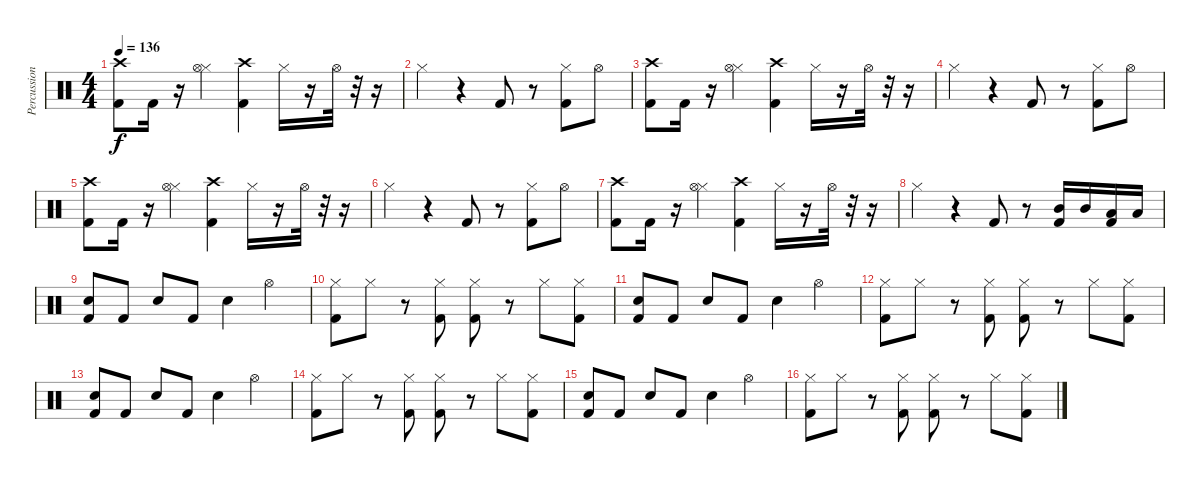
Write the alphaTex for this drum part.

\track ("Percussion" "Percussion") {instrument percussion}
\staff {score}
\articulation defaults
\ts (4 4)
\tempo 136
\clef neutral
\ks c
("Kick (hit) 2" "Crash high (hit)").8{dy f} "Kick (hit) 2".16 r.16 ("Hi-Hat (closed)" "Hi-Hat (open)").4 ("Kick (hit) 2" "Crash high (hit)").4 "Hi-Hat (closed)".16 r.16 "Hi-Hat (open)".32 r.32 r.16 |
"Hi-Hat (closed)".4 r.4 "Kick (hit) 2".8 r.8 ("Hi-Hat (closed)" "Kick (hit) 2").8 "Hi-Hat (open)".8 |
("Kick (hit) 2" "Crash high (hit)").8 "Kick (hit) 2".16 r.16 ("Hi-Hat (closed)" "Hi-Hat (open)").4 ("Kick (hit) 2" "Crash high (hit)").4 "Hi-Hat (closed)".16 r.16 "Hi-Hat (open)".32 r.32 r.16 |
"Hi-Hat (closed)".4 r.4 "Kick (hit) 2".8 r.8 ("Hi-Hat (closed)" "Kick (hit) 2").8 "Hi-Hat (open)".8 |
("Kick (hit) 2" "Crash high (hit)").8 "Kick (hit) 2".16 r.16 ("Hi-Hat (closed)" "Hi-Hat (open)").4 ("Kick (hit) 2" "Crash high (hit)").4 "Hi-Hat (closed)".16 r.16 "Hi-Hat (open)".32 r.32 r.16 |
"Hi-Hat (closed)".4 r.4 "Kick (hit) 2".8 r.8 ("Hi-Hat (closed)" "Kick (hit) 2").8 "Hi-Hat (open)".8 |
("Kick (hit) 2" "Crash high (hit)").8 "Kick (hit) 2".16 r.16 ("Hi-Hat (closed)" "Hi-Hat (open)").4 ("Kick (hit) 2" "Crash high (hit)").4 "Hi-Hat (closed)".16 r.16 "Hi-Hat (open)".32 r.32 r.16 |
"Hi-Hat (closed)".4 r.4 "Kick (hit) 2".8 r.8 ("Mid Tom (hit)" "Kick (hit) 2").16 "Mid Tom (hit)".16 ("Low Tom (hit)" "Kick (hit) 2").16 "Low Tom (hit)".16 |
("Kick (hit) 2" "Electric Snare (hit)").8 "Kick (hit) 2".8 "Electric Snare (hit)".8 "Kick (hit) 2".8 "Electric Snare (hit)".4 "Hi-Hat (open)".4 |
("Hi-Hat (closed)" "Kick (hit) 2").8 "Hi-Hat (closed)".8 r.8 ("Hi-Hat (closed)" "Kick (hit) 2").8 ("Hi-Hat (closed)" "Kick (hit) 2").8 r.8 "Hi-Hat (closed)".8 ("Hi-Hat (closed)" "Kick (hit) 2").8 |
("Kick (hit) 2" "Electric Snare (hit)").8 "Kick (hit) 2".8 "Electric Snare (hit)".8 "Kick (hit) 2".8 "Electric Snare (hit)".4 "Hi-Hat (open)".4 |
("Hi-Hat (closed)" "Kick (hit) 2").8 "Hi-Hat (closed)".8 r.8 ("Hi-Hat (closed)" "Kick (hit) 2").8 ("Hi-Hat (closed)" "Kick (hit) 2").8 r.8 "Hi-Hat (closed)".8 ("Hi-Hat (closed)" "Kick (hit) 2").8 |
("Kick (hit) 2" "Electric Snare (hit)").8 "Kick (hit) 2".8 "Electric Snare (hit)".8 "Kick (hit) 2".8 "Electric Snare (hit)".4 "Hi-Hat (open)".4 |
("Hi-Hat (closed)" "Kick (hit) 2").8 "Hi-Hat (closed)".8 r.8 ("Hi-Hat (closed)" "Kick (hit) 2").8 ("Hi-Hat (closed)" "Kick (hit) 2").8 r.8 "Hi-Hat (closed)".8 ("Hi-Hat (closed)" "Kick (hit) 2").8 |
("Kick (hit) 2" "Electric Snare (hit)").8 "Kick (hit) 2".8 "Electric Snare (hit)".8 "Kick (hit) 2".8 "Electric Snare (hit)".4 "Hi-Hat (open)".4 |
("Hi-Hat (closed)" "Kick (hit) 2").8 "Hi-Hat (closed)".8 r.8 ("Hi-Hat (closed)" "Kick (hit) 2").8 ("Hi-Hat (closed)" "Kick (hit) 2").8 r.8 "Hi-Hat (closed)".8 ("Hi-Hat (closed)" "Kick (hit) 2").8
